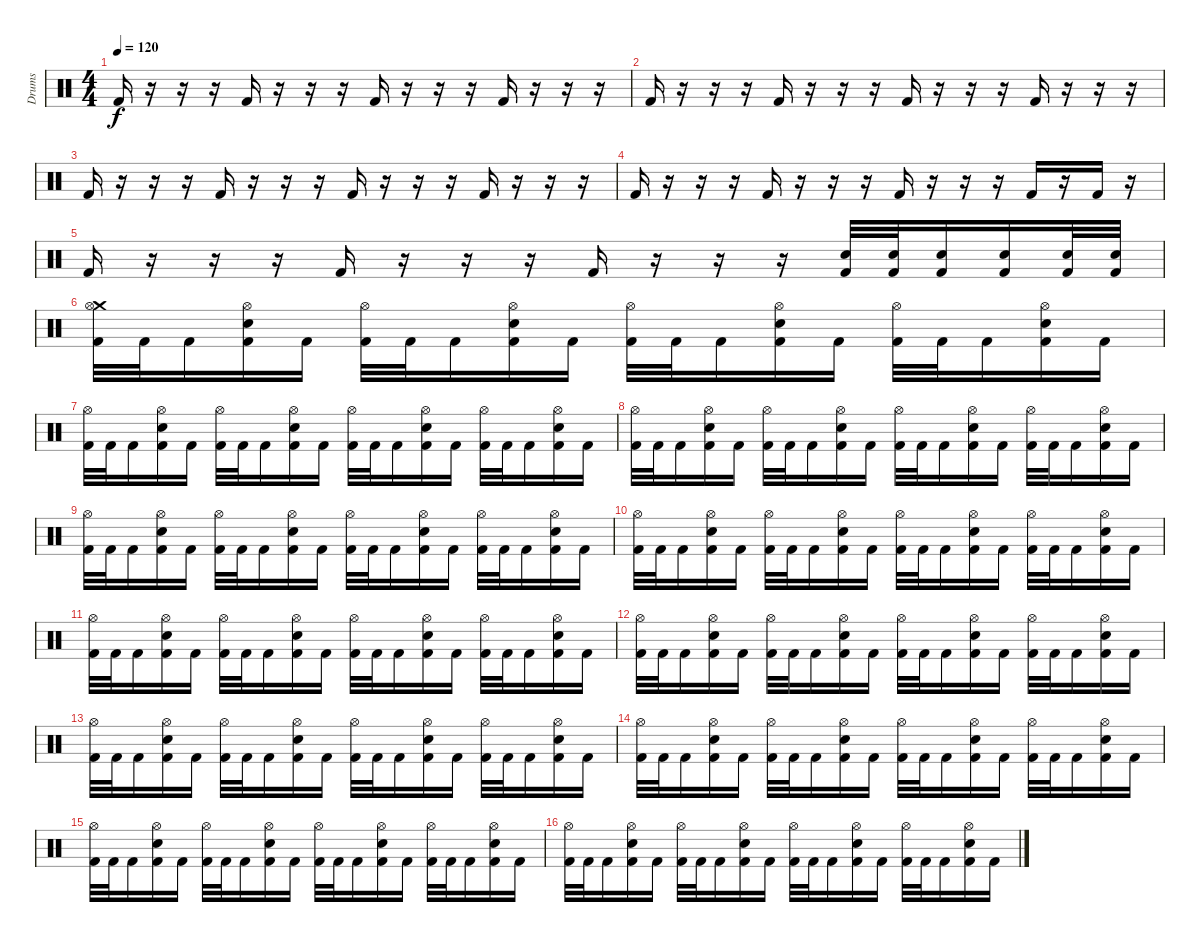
\track ("Drums" "Drums") {instrument percussion}
\staff {score}
\articulation defaults
\ts (4 4)
\tempo 120
\clef neutral
\ks c "Kick (hit) 2".16{dy f}
r.16 r.16 r.16 "Kick (hit) 2".16 r.16 r.16 r.16 "Kick (hit) 2".16 r.16 r.16 r.16 "Kick (hit) 2".16 r.16 r.16 r.16 |
"Kick (hit) 2".16 r.16 r.16 r.16 "Kick (hit) 2".16 r.16 r.16 r.16 "Kick (hit) 2".16 r.16 r.16 r.16 "Kick (hit) 2".16 r.16 r.16 r.16 |
"Kick (hit) 2".16 r.16 r.16 r.16 "Kick (hit) 2".16 r.16 r.16 r.16 "Kick (hit) 2".16 r.16 r.16 r.16 "Kick (hit) 2".16 r.16 r.16 r.16 |
"Kick (hit) 2".16 r.16 r.16 r.16 "Kick (hit) 2".16 r.16 r.16 r.16 "Kick (hit) 2".16 r.16 r.16 r.16 "Kick (hit) 2".16 r.16 "Kick (hit) 2".16 r.16 |
"Kick (hit) 2".16 r.16 r.16 r.16 "Kick (hit) 2".16 r.16 r.16 r.16 "Kick (hit) 2".16 r.16 r.16 r.16 ("Electric Snare (hit)" "Kick (hit) 2").32 ("Electric Snare (hit)" "Kick (hit) 2").32 ("Electric Snare (hit)" "Kick (hit) 2").16 ("Electric Snare (hit)" "Kick (hit) 2").16 ("Electric Snare (hit)" "Kick (hit) 2").32 ("Electric Snare (hit)" "Kick (hit) 2").32 |
("Crash medium (hit)" "Hi-Hat (open)" "Kick (hit) 2").32 "Kick (hit) 2".32 "Kick (hit) 2".16 ("Hi-Hat (open)" "Electric Snare (hit)" "Kick (hit) 2").16 "Kick (hit) 2".16 ("Hi-Hat (open)" "Kick (hit) 2").32 "Kick (hit) 2".32 "Kick (hit) 2".16 ("Hi-Hat (open)" "Electric Snare (hit)" "Kick (hit) 2").16 "Kick (hit) 2".16 ("Hi-Hat (open)" "Kick (hit) 2").32 "Kick (hit) 2".32 "Kick (hit) 2".16 ("Hi-Hat (open)" "Electric Snare (hit)" "Kick (hit) 2").16 "Kick (hit) 2".16 ("Hi-Hat (open)" "Kick (hit) 2").32 "Kick (hit) 2".32 "Kick (hit) 2".16 ("Hi-Hat (open)" "Electric Snare (hit)" "Kick (hit) 2").16 "Kick (hit) 2".16 |
("Hi-Hat (open)" "Kick (hit) 2").32 "Kick (hit) 2".32 "Kick (hit) 2".16 ("Hi-Hat (open)" "Electric Snare (hit)" "Kick (hit) 2").16 "Kick (hit) 2".16 ("Hi-Hat (open)" "Kick (hit) 2").32 "Kick (hit) 2".32 "Kick (hit) 2".16 ("Hi-Hat (open)" "Electric Snare (hit)" "Kick (hit) 2").16 "Kick (hit) 2".16 ("Hi-Hat (open)" "Kick (hit) 2").32 "Kick (hit) 2".32 "Kick (hit) 2".16 ("Hi-Hat (open)" "Electric Snare (hit)" "Kick (hit) 2").16 "Kick (hit) 2".16 ("Hi-Hat (open)" "Kick (hit) 2").32 "Kick (hit) 2".32 "Kick (hit) 2".16 ("Hi-Hat (open)" "Electric Snare (hit)" "Kick (hit) 2").16 "Kick (hit) 2".16 |
("Hi-Hat (open)" "Kick (hit) 2").32 "Kick (hit) 2".32 "Kick (hit) 2".16 ("Hi-Hat (open)" "Electric Snare (hit)" "Kick (hit) 2").16 "Kick (hit) 2".16 ("Hi-Hat (open)" "Kick (hit) 2").32 "Kick (hit) 2".32 "Kick (hit) 2".16 ("Hi-Hat (open)" "Electric Snare (hit)" "Kick (hit) 2").16 "Kick (hit) 2".16 ("Hi-Hat (open)" "Kick (hit) 2").32 "Kick (hit) 2".32 "Kick (hit) 2".16 ("Hi-Hat (open)" "Electric Snare (hit)" "Kick (hit) 2").16 "Kick (hit) 2".16 ("Hi-Hat (open)" "Kick (hit) 2").32 "Kick (hit) 2".32 "Kick (hit) 2".16 ("Hi-Hat (open)" "Electric Snare (hit)" "Kick (hit) 2").16 "Kick (hit) 2".16 |
("Hi-Hat (open)" "Kick (hit) 2").32 "Kick (hit) 2".32 "Kick (hit) 2".16 ("Hi-Hat (open)" "Electric Snare (hit)" "Kick (hit) 2").16 "Kick (hit) 2".16 ("Hi-Hat (open)" "Kick (hit) 2").32 "Kick (hit) 2".32 "Kick (hit) 2".16 ("Hi-Hat (open)" "Electric Snare (hit)" "Kick (hit) 2").16 "Kick (hit) 2".16 ("Hi-Hat (open)" "Kick (hit) 2").32 "Kick (hit) 2".32 "Kick (hit) 2".16 ("Hi-Hat (open)" "Electric Snare (hit)" "Kick (hit) 2").16 "Kick (hit) 2".16 ("Hi-Hat (open)" "Kick (hit) 2").32 "Kick (hit) 2".32 "Kick (hit) 2".16 ("Hi-Hat (open)" "Electric Snare (hit)" "Kick (hit) 2").16 "Kick (hit) 2".16 |
("Hi-Hat (open)" "Kick (hit) 2").32 "Kick (hit) 2".32 "Kick (hit) 2".16 ("Hi-Hat (open)" "Electric Snare (hit)" "Kick (hit) 2").16 "Kick (hit) 2".16 ("Hi-Hat (open)" "Kick (hit) 2").32 "Kick (hit) 2".32 "Kick (hit) 2".16 ("Hi-Hat (open)" "Electric Snare (hit)" "Kick (hit) 2").16 "Kick (hit) 2".16 ("Hi-Hat (open)" "Kick (hit) 2").32 "Kick (hit) 2".32 "Kick (hit) 2".16 ("Hi-Hat (open)" "Electric Snare (hit)" "Kick (hit) 2").16 "Kick (hit) 2".16 ("Hi-Hat (open)" "Kick (hit) 2").32 "Kick (hit) 2".32 "Kick (hit) 2".16 ("Hi-Hat (open)" "Electric Snare (hit)" "Kick (hit) 2").16 "Kick (hit) 2".16 |
("Hi-Hat (open)" "Kick (hit) 2").32 "Kick (hit) 2".32 "Kick (hit) 2".16 ("Hi-Hat (open)" "Electric Snare (hit)" "Kick (hit) 2").16 "Kick (hit) 2".16 ("Hi-Hat (open)" "Kick (hit) 2").32 "Kick (hit) 2".32 "Kick (hit) 2".16 ("Hi-Hat (open)" "Electric Snare (hit)" "Kick (hit) 2").16 "Kick (hit) 2".16 ("Hi-Hat (open)" "Kick (hit) 2").32 "Kick (hit) 2".32 "Kick (hit) 2".16 ("Hi-Hat (open)" "Electric Snare (hit)" "Kick (hit) 2").16 "Kick (hit) 2".16 ("Hi-Hat (open)" "Kick (hit) 2").32 "Kick (hit) 2".32 "Kick (hit) 2".16 ("Hi-Hat (open)" "Electric Snare (hit)" "Kick (hit) 2").16 "Kick (hit) 2".16 |
("Hi-Hat (open)" "Kick (hit) 2").32 "Kick (hit) 2".32 "Kick (hit) 2".16 ("Hi-Hat (open)" "Electric Snare (hit)" "Kick (hit) 2").16 "Kick (hit) 2".16 ("Hi-Hat (open)" "Kick (hit) 2").32 "Kick (hit) 2".32 "Kick (hit) 2".16 ("Hi-Hat (open)" "Electric Snare (hit)" "Kick (hit) 2").16 "Kick (hit) 2".16 ("Hi-Hat (open)" "Kick (hit) 2").32 "Kick (hit) 2".32 "Kick (hit) 2".16 ("Hi-Hat (open)" "Electric Snare (hit)" "Kick (hit) 2").16 "Kick (hit) 2".16 ("Hi-Hat (open)" "Kick (hit) 2").32 "Kick (hit) 2".32 "Kick (hit) 2".16 ("Hi-Hat (open)" "Electric Snare (hit)" "Kick (hit) 2").16 "Kick (hit) 2".16 |
("Hi-Hat (open)" "Kick (hit) 2").32 "Kick (hit) 2".32 "Kick (hit) 2".16 ("Hi-Hat (open)" "Electric Snare (hit)" "Kick (hit) 2").16 "Kick (hit) 2".16 ("Hi-Hat (open)" "Kick (hit) 2").32 "Kick (hit) 2".32 "Kick (hit) 2".16 ("Hi-Hat (open)" "Electric Snare (hit)" "Kick (hit) 2").16 "Kick (hit) 2".16 ("Hi-Hat (open)" "Kick (hit) 2").32 "Kick (hit) 2".32 "Kick (hit) 2".16 ("Hi-Hat (open)" "Electric Snare (hit)" "Kick (hit) 2").16 "Kick (hit) 2".16 ("Hi-Hat (open)" "Kick (hit) 2").32 "Kick (hit) 2".32 "Kick (hit) 2".16 ("Hi-Hat (open)" "Electric Snare (hit)" "Kick (hit) 2").16 "Kick (hit) 2".16 |
("Hi-Hat (open)" "Kick (hit) 2").32 "Kick (hit) 2".32 "Kick (hit) 2".16 ("Hi-Hat (open)" "Electric Snare (hit)" "Kick (hit) 2").16 "Kick (hit) 2".16 ("Hi-Hat (open)" "Kick (hit) 2").32 "Kick (hit) 2".32 "Kick (hit) 2".16 ("Hi-Hat (open)" "Electric Snare (hit)" "Kick (hit) 2").16 "Kick (hit) 2".16 ("Hi-Hat (open)" "Kick (hit) 2").32 "Kick (hit) 2".32 "Kick (hit) 2".16 ("Hi-Hat (open)" "Electric Snare (hit)" "Kick (hit) 2").16 "Kick (hit) 2".16 ("Hi-Hat (open)" "Kick (hit) 2").32 "Kick (hit) 2".32 "Kick (hit) 2".16 ("Hi-Hat (open)" "Electric Snare (hit)" "Kick (hit) 2").16 "Kick (hit) 2".16 |
("Hi-Hat (open)" "Kick (hit) 2").32 "Kick (hit) 2".32 "Kick (hit) 2".16 ("Hi-Hat (open)" "Electric Snare (hit)" "Kick (hit) 2").16 "Kick (hit) 2".16 ("Hi-Hat (open)" "Kick (hit) 2").32 "Kick (hit) 2".32 "Kick (hit) 2".16 ("Hi-Hat (open)" "Electric Snare (hit)" "Kick (hit) 2").16 "Kick (hit) 2".16 ("Hi-Hat (open)" "Kick (hit) 2").32 "Kick (hit) 2".32 "Kick (hit) 2".16 ("Hi-Hat (open)" "Electric Snare (hit)" "Kick (hit) 2").16 "Kick (hit) 2".16 ("Hi-Hat (open)" "Kick (hit) 2").32 "Kick (hit) 2".32 "Kick (hit) 2".16 ("Hi-Hat (open)" "Electric Snare (hit)" "Kick (hit) 2").16 "Kick (hit) 2".16 |
("Hi-Hat (open)" "Kick (hit) 2").32 "Kick (hit) 2".32 "Kick (hit) 2".16 ("Hi-Hat (open)" "Electric Snare (hit)" "Kick (hit) 2").16 "Kick (hit) 2".16 ("Hi-Hat (open)" "Kick (hit) 2").32 "Kick (hit) 2".32 "Kick (hit) 2".16 ("Hi-Hat (open)" "Electric Snare (hit)" "Kick (hit) 2").16 "Kick (hit) 2".16 ("Hi-Hat (open)" "Kick (hit) 2").32 "Kick (hit) 2".32 "Kick (hit) 2".16 ("Hi-Hat (open)" "Electric Snare (hit)" "Kick (hit) 2").16 "Kick (hit) 2".16 ("Hi-Hat (open)" "Kick (hit) 2").32 "Kick (hit) 2".32 "Kick (hit) 2".16 ("Hi-Hat (open)" "Electric Snare (hit)" "Kick (hit) 2").16 "Kick (hit) 2".16
